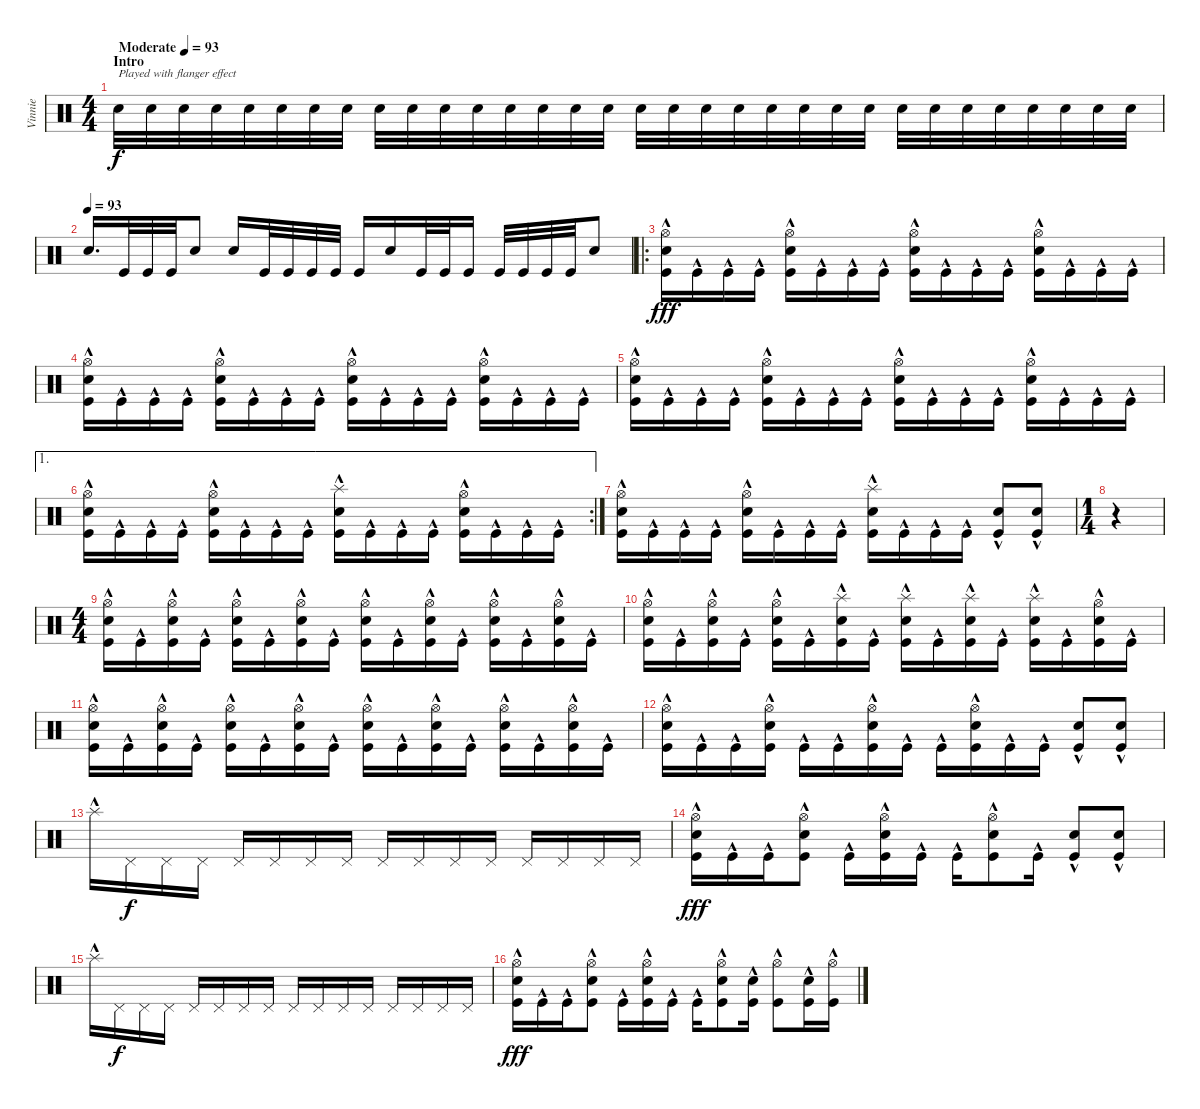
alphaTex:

\track ("Vinnie" "Vinnie") {instrument percussion}
\staff {score}
\articulation defaults
\ts (4 4)
\section ("" "Intro")
\tempo (93 "Moderate")
\tempo 85
\tempo (93 "Moderate")
\clef neutral
\ks c "Electric Snare (hit)".32{txt "Played with flanger effect" dy f volume 0} "Electric Snare (hit)".32{volume 16} "Electric Snare (hit)".32 "Electric Snare (hit)".32 "Electric Snare (hit)".32 "Electric Snare (hit)".32 "Electric Snare (hit)".32 "Electric Snare (hit)".32 "Electric Snare (hit)".32 "Electric Snare (hit)".32 "Electric Snare (hit)".32 "Electric Snare (hit)".32 "Electric Snare (hit)".32 "Electric Snare (hit)".32 "Electric Snare (hit)".32 "Electric Snare (hit)".32 "Electric Snare (hit)".32 "Electric Snare (hit)".32 "Electric Snare (hit)".32 "Electric Snare (hit)".32 "Electric Snare (hit)".32 "Electric Snare (hit)".32 "Electric Snare (hit)".32 "Electric Snare (hit)".32 "Electric Snare (hit)".32 "Electric Snare (hit)".32 "Electric Snare (hit)".32 "Electric Snare (hit)".32 "Electric Snare (hit)".32 "Electric Snare (hit)".32 "Electric Snare (hit)".32 "Electric Snare (hit)".32
|
\tempo (93)
"Electric Snare (hit)".16{d} "Kick (hit)".32 "Kick (hit)".32 "Kick (hit)".32 "Electric Snare (hit)".8 "Electric Snare (hit)".16 "Kick (hit)".32 "Kick (hit)".32 "Kick (hit)".32 "Kick (hit)".32 "Kick (hit)".16 "Electric Snare (hit)".16 "Kick (hit)".32 "Kick (hit)".32 "Kick (hit)".16 "Kick (hit)".32 "Kick (hit)".32 "Kick (hit)".32 "Kick (hit)".32 "Electric Snare (hit)".8 |
\ro
("Hi-Hat (open)"{hac} "Electric Snare (hit)" "Kick (hit)"{hac}).16{dy fff} "Kick (hit)"{hac}.16 "Kick (hit)"{hac}.16 "Kick (hit)"{hac}.16 ("Hi-Hat (open)" "Electric Snare (hit)" "Kick (hit)"{hac}).16 "Kick (hit)"{hac}.16 "Kick (hit)"{hac}.16 "Kick (hit)"{hac}.16 ("Hi-Hat (open)" "Electric Snare (hit)" "Kick (hit)"{hac}).16 "Kick (hit)"{hac}.16 "Kick (hit)"{hac}.16 "Kick (hit)"{hac}.16 ("Hi-Hat (open)" "Electric Snare (hit)" "Kick (hit)"{hac}).16 "Kick (hit)"{hac}.16 "Kick (hit)"{hac}.16 "Kick (hit)"{hac}.16 |
("Hi-Hat (open)"{hac} "Electric Snare (hit)" "Kick (hit)"{hac}).16 "Kick (hit)"{hac}.16 "Kick (hit)"{hac}.16 "Kick (hit)"{hac}.16 ("Hi-Hat (open)" "Electric Snare (hit)" "Kick (hit)"{hac}).16 "Kick (hit)"{hac}.16 "Kick (hit)"{hac}.16 "Kick (hit)"{hac}.16 ("Hi-Hat (open)" "Electric Snare (hit)" "Kick (hit)"{hac}).16 "Kick (hit)"{hac}.16 "Kick (hit)"{hac}.16 "Kick (hit)"{hac}.16 ("Hi-Hat (open)" "Electric Snare (hit)" "Kick (hit)"{hac}).16 "Kick (hit)"{hac}.16 "Kick (hit)"{hac}.16 "Kick (hit)"{hac}.16 |
("Hi-Hat (open)"{hac} "Electric Snare (hit)" "Kick (hit)"{hac}).16 "Kick (hit)"{hac}.16 "Kick (hit)"{hac}.16 "Kick (hit)"{hac}.16 ("Hi-Hat (open)" "Electric Snare (hit)" "Kick (hit)"{hac}).16 "Kick (hit)"{hac}.16 "Kick (hit)"{hac}.16 "Kick (hit)"{hac}.16 ("Hi-Hat (open)" "Electric Snare (hit)" "Kick (hit)"{hac}).16 "Kick (hit)"{hac}.16 "Kick (hit)"{hac}.16 "Kick (hit)"{hac}.16 ("Hi-Hat (open)" "Electric Snare (hit)" "Kick (hit)"{hac}).16 "Kick (hit)"{hac}.16 "Kick (hit)"{hac}.16 "Kick (hit)"{hac}.16 |
\ae 1
\rc 2
("Hi-Hat (open)"{hac} "Electric Snare (hit)" "Kick (hit)"{hac}).16 "Kick (hit)"{hac}.16 "Kick (hit)"{hac}.16 "Kick (hit)"{hac}.16 ("Hi-Hat (open)" "Electric Snare (hit)" "Kick (hit)"{hac}).16 "Kick (hit)"{hac}.16 "Kick (hit)"{hac}.16 "Kick (hit)"{hac}.16 ("Splash (hit)" "Electric Snare (hit)" "Kick (hit)"{hac}).16 "Kick (hit)"{hac}.16 "Kick (hit)"{hac}.16 "Kick (hit)"{hac}.16 ("Hi-Hat (open)" "Electric Snare (hit)" "Kick (hit)"{hac}).16 "Kick (hit)"{hac}.16 "Kick (hit)"{hac}.16 "Kick (hit)"{hac}.16 |
("Hi-Hat (open)"{hac} "Electric Snare (hit)" "Kick (hit)"{hac}).16 "Kick (hit)"{hac}.16 "Kick (hit)"{hac}.16 "Kick (hit)"{hac}.16 ("Hi-Hat (open)" "Electric Snare (hit)" "Kick (hit)"{hac}).16 "Kick (hit)"{hac}.16 "Kick (hit)"{hac}.16 "Kick (hit)"{hac}.16 ("Splash (hit)" "Electric Snare (hit)" "Kick (hit)"{hac}).16 "Kick (hit)"{hac}.16 "Kick (hit)"{hac}.16 "Kick (hit)"{hac}.16 ("Electric Snare (hit)"{hac} "Kick (hit)"{hac}).8 ("Electric Snare (hit)"{hac} "Kick (hit)"{hac}).8 |
\ts (1 4)
r.4 |
\ts (4 4)
("Hi-Hat (open)" "Electric Snare (hit)" "Kick (hit)"{hac}).16 "Kick (hit)"{hac}.16 ("Hi-Hat (open)" "Electric Snare (hit)" "Kick (hit)"{hac}).16 "Kick (hit)"{hac}.16 ("Hi-Hat (open)" "Electric Snare (hit)" "Kick (hit)"{hac}).16 "Kick (hit)"{hac}.16 ("Hi-Hat (open)" "Electric Snare (hit)" "Kick (hit)"{hac}).16 "Kick (hit)"{hac}.16 ("Hi-Hat (open)" "Electric Snare (hit)" "Kick (hit)"{hac}).16 "Kick (hit)"{hac}.16 ("Hi-Hat (open)" "Electric Snare (hit)" "Kick (hit)"{hac}).16 "Kick (hit)"{hac}.16 ("Hi-Hat (open)" "Electric Snare (hit)" "Kick (hit)"{hac}).16 "Kick (hit)"{hac}.16 ("Hi-Hat (open)" "Electric Snare (hit)" "Kick (hit)"{hac}).16 "Kick (hit)"{hac}.16 |
("Hi-Hat (open)" "Electric Snare (hit)" "Kick (hit)"{hac}).16 "Kick (hit)"{hac}.16 ("Hi-Hat (open)" "Electric Snare (hit)" "Kick (hit)"{hac}).16 "Kick (hit)"{hac}.16 ("Hi-Hat (open)" "Electric Snare (hit)" "Kick (hit)"{hac}).16 "Kick (hit)"{hac}.16 ("Splash (hit)"{hac} "Electric Snare (hit)" "Kick (hit)"{hac}).16 "Kick (hit)"{hac}.16 ("Splash (hit)"{hac} "Electric Snare (hit)" "Kick (hit)"{hac}).16 "Kick (hit)"{hac}.16 ("Splash (hit)"{hac} "Electric Snare (hit)" "Kick (hit)"{hac}).16 "Kick (hit)"{hac}.16 ("Splash (hit)"{hac} "Electric Snare (hit)" "Kick (hit)"{hac}).16 "Kick (hit)"{hac}.16 ("Hi-Hat (open)" "Electric Snare (hit)" "Kick (hit)"{hac}).16 "Kick (hit)"{hac}.16 |
("Hi-Hat (open)" "Electric Snare (hit)" "Kick (hit)"{hac}).16 "Kick (hit)"{hac}.16 ("Hi-Hat (open)" "Electric Snare (hit)" "Kick (hit)"{hac}).16 "Kick (hit)"{hac}.16 ("Hi-Hat (open)" "Electric Snare (hit)" "Kick (hit)"{hac}).16 "Kick (hit)"{hac}.16 ("Hi-Hat (open)" "Electric Snare (hit)" "Kick (hit)"{hac}).16 "Kick (hit)"{hac}.16 ("Hi-Hat (open)" "Electric Snare (hit)" "Kick (hit)"{hac}).16 "Kick (hit)"{hac}.16 ("Hi-Hat (open)" "Electric Snare (hit)" "Kick (hit)"{hac}).16 "Kick (hit)"{hac}.16 ("Hi-Hat (open)" "Electric Snare (hit)" "Kick (hit)"{hac}).16 "Kick (hit)"{hac}.16 ("Hi-Hat (open)" "Electric Snare (hit)" "Kick (hit)"{hac}).16 "Kick (hit)"{hac}.16 |
("Hi-Hat (open)"{hac} "Electric Snare (hit)" "Kick (hit)"{hac}).16 "Kick (hit)"{hac}.16 "Kick (hit)"{hac}.16 ("Hi-Hat (open)" "Electric Snare (hit)" "Kick (hit)"{hac}).16 "Kick (hit)"{hac}.16 "Kick (hit)"{hac}.16 ("Hi-Hat (open)" "Electric Snare (hit)" "Kick (hit)"{hac}).16 "Kick (hit)"{hac}.16 "Kick (hit)"{hac}.16 ("Hi-Hat (open)" "Electric Snare (hit)" "Kick (hit)"{hac}).16 "Kick (hit)"{hac}.16 "Kick (hit)"{hac}.16 ("Electric Snare (hit)"{hac} "Kick (hit)"{hac}).8 ("Electric Snare (hit)"{hac} "Kick (hit)"{hac}).8 |
"Splash (hit)"{hac}.16 "Pedal Hi-Hat (hit)".16{dy f} "Pedal Hi-Hat (hit)".16 "Pedal Hi-Hat (hit)".16 "Pedal Hi-Hat (hit)".16 "Pedal Hi-Hat (hit)".16 "Pedal Hi-Hat (hit)".16 "Pedal Hi-Hat (hit)".16 "Pedal Hi-Hat (hit)".16 "Pedal Hi-Hat (hit)".16 "Pedal Hi-Hat (hit)".16 "Pedal Hi-Hat (hit)".16 "Pedal Hi-Hat (hit)".16 "Pedal Hi-Hat (hit)".16 "Pedal Hi-Hat (hit)".16 "Pedal Hi-Hat (hit)".16 |
("Hi-Hat (open)"{hac} "Electric Snare (hit)" "Kick (hit)"{hac}).16{dy fff} "Kick (hit)"{hac}.16 "Kick (hit)"{hac}.16 ("Hi-Hat (open)" "Electric Snare (hit)" "Kick (hit)"{hac}).8 "Kick (hit)"{hac}.16 ("Hi-Hat (open)"{hac} "Electric Snare (hit)" "Kick (hit)"{hac}).16 "Kick (hit)"{hac}.16 "Kick (hit)"{hac}.16 ("Hi-Hat (open)" "Electric Snare (hit)" "Kick (hit)"{hac}).8 "Kick (hit)"{hac}.16 ("Electric Snare (hit)"{hac} "Kick (hit)"{hac}).8 ("Electric Snare (hit)"{hac} "Kick (hit)"{hac}).8 |
"Splash (hit)"{hac}.16 "Pedal Hi-Hat (hit)".16{dy f} "Pedal Hi-Hat (hit)".16 "Pedal Hi-Hat (hit)".16 "Pedal Hi-Hat (hit)".16 "Pedal Hi-Hat (hit)".16 "Pedal Hi-Hat (hit)".16 "Pedal Hi-Hat (hit)".16 "Pedal Hi-Hat (hit)".16 "Pedal Hi-Hat (hit)".16 "Pedal Hi-Hat (hit)".16 "Pedal Hi-Hat (hit)".16 "Pedal Hi-Hat (hit)".16 "Pedal Hi-Hat (hit)".16 "Pedal Hi-Hat (hit)".16 "Pedal Hi-Hat (hit)".16 |
("Hi-Hat (open)"{hac} "Electric Snare (hit)" "Kick (hit)"{hac}).16{dy fff} "Kick (hit)"{hac}.16 "Kick (hit)"{hac}.16 ("Hi-Hat (open)" "Electric Snare (hit)" "Kick (hit)"{hac}).8 "Kick (hit)"{hac}.16 ("Hi-Hat (open)"{hac} "Electric Snare (hit)" "Kick (hit)"{hac}).16 "Kick (hit)"{hac}.16 "Kick (hit)"{hac}.16 ("Hi-Hat (open)" "Electric Snare (hit)" "Kick (hit)"{hac}).8 ("Electric Snare (hit)" "Kick (hit)"{hac}).16 ("Hi-Hat (open)" "Kick (hit)"{hac}).8 ("Electric Snare (hit)" "Kick (hit)"{hac}).16 ("Hi-Hat (open)" "Kick (hit)"{hac}).16
